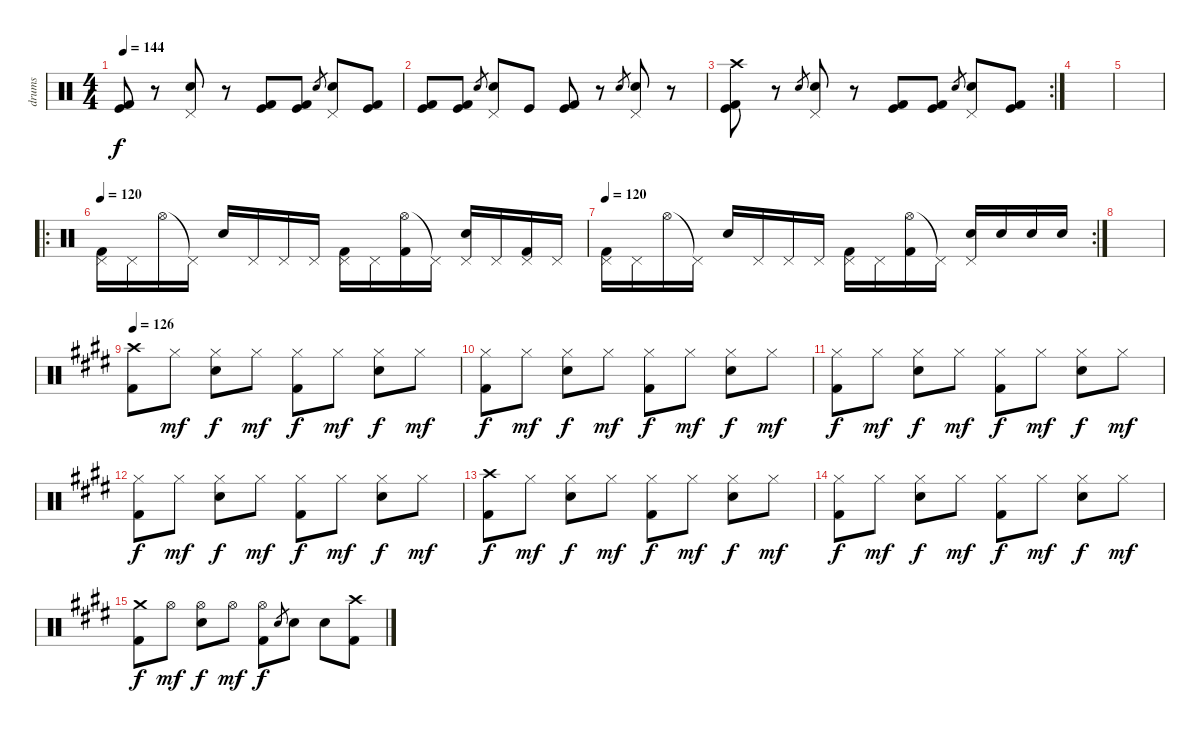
\track ("drums" "drums") {instrument percussion}
\staff {score}
\articulation defaults
\ts (4 4)
\tempo 144
\clef neutral
\ks c
("Kick (hit)" "Kick (hit) 2").8{dy f} r.8 ("Pedal Hi-Hat (hit)" "Snare (hit) 2").8 r.8 ("Kick (hit)" "Kick (hit) 2").8 ("Kick (hit)" "Kick (hit) 2").8 "Snare (hit) 2".8{gr} ("Pedal Hi-Hat (hit)" "Snare (hit) 2").8 ("Kick (hit)" "Kick (hit) 2").8 |
("Kick (hit)" "Kick (hit) 2").8 ("Kick (hit)" "Kick (hit) 2").8 "Snare (hit) 2".8{gr} ("Pedal Hi-Hat (hit)" "Snare (hit) 2").8 "Kick (hit)".8 ("Kick (hit)" "Kick (hit) 2").8 r.8 "Snare (hit) 2".8{gr} ("Pedal Hi-Hat (hit)" "Snare (hit) 2").8 r.8 |
\rc 2
("Crash high (hit)" "Kick (hit)" "Kick (hit) 2").8 r.8 "Snare (hit) 2".8{gr} ("Pedal Hi-Hat (hit)" "Snare (hit) 2").8 r.8 ("Kick (hit)" "Kick (hit) 2").8 ("Kick (hit)" "Kick (hit) 2").8 "Snare (hit) 2".8{gr} ("Pedal Hi-Hat (hit)" "Snare (hit) 2").8 ("Kick (hit)" "Kick (hit) 2").8 |
|
|
\ro
\tempo 120
("Pedal Hi-Hat (hit)" "Kick (hit) 2").16 "Pedal Hi-Hat (hit)".16 "Hi-Hat (open)".16 "Pedal Hi-Hat (hit)"{t}.16 "Electric Snare (hit)".16 "Pedal Hi-Hat (hit)".16 "Pedal Hi-Hat (hit)".16 "Pedal Hi-Hat (hit)".16 ("Pedal Hi-Hat (hit)" "Kick (hit) 2").16 "Pedal Hi-Hat (hit)".16 ("Hi-Hat (open)" "Kick (hit) 2").16 "Pedal Hi-Hat (hit)"{t}.16 ("Pedal Hi-Hat (hit)" "Electric Snare (hit)").16 "Pedal Hi-Hat (hit)".16 ("Pedal Hi-Hat (hit)" "Kick (hit) 2").16 "Pedal Hi-Hat (hit)".16 |
\rc 2
\tempo 120
("Pedal Hi-Hat (hit)" "Kick (hit) 2").16 "Pedal Hi-Hat (hit)".16 "Hi-Hat (open)".16 "Pedal Hi-Hat (hit)"{t}.16 "Electric Snare (hit)".16 "Pedal Hi-Hat (hit)".16 "Pedal Hi-Hat (hit)".16 "Pedal Hi-Hat (hit)".16 ("Pedal Hi-Hat (hit)" "Kick (hit) 2").16 "Pedal Hi-Hat (hit)".16 ("Hi-Hat (open)" "Kick (hit) 2").16 "Pedal Hi-Hat (hit)"{t}.16 ("Pedal Hi-Hat (hit)" "Electric Snare (hit)").16 "Electric Snare (hit)".16 "Electric Snare (hit)".16 "Electric Snare (hit)".16 |
|
\tempo 126
\ks e
("Crash high (hit)" "Kick (hit) 2").8 "Hi-Hat (closed)".8{dy mf} ("Hi-Hat (closed)" "Snare (hit) 2").8{dy f} "Hi-Hat (closed)".8{dy mf} ("Hi-Hat (closed)" "Kick (hit) 2").8{dy f} "Hi-Hat (closed)".8{dy mf} ("Hi-Hat (closed)" "Snare (hit) 2").8{dy f} "Hi-Hat (closed)".8{dy mf} |
("Hi-Hat (closed)" "Kick (hit) 2").8{dy f} "Hi-Hat (closed)".8{dy mf} ("Hi-Hat (closed)" "Snare (hit) 2").8{dy f} "Hi-Hat (closed)".8{dy mf} ("Hi-Hat (closed)" "Kick (hit) 2").8{dy f} "Hi-Hat (closed)".8{dy mf} ("Hi-Hat (closed)" "Snare (hit) 2").8{dy f} "Hi-Hat (closed)".8{dy mf} |
("Hi-Hat (closed)" "Kick (hit) 2").8{dy f} "Hi-Hat (closed)".8{dy mf} ("Hi-Hat (closed)" "Snare (hit) 2").8{dy f} "Hi-Hat (closed)".8{dy mf} ("Hi-Hat (closed)" "Kick (hit) 2").8{dy f} "Hi-Hat (closed)".8{dy mf} ("Hi-Hat (closed)" "Snare (hit) 2").8{dy f} "Hi-Hat (closed)".8{dy mf} |
("Hi-Hat (closed)" "Kick (hit) 2").8{dy f} "Hi-Hat (closed)".8{dy mf} ("Hi-Hat (closed)" "Snare (hit) 2").8{dy f} "Hi-Hat (closed)".8{dy mf} ("Hi-Hat (closed)" "Kick (hit) 2").8{dy f} "Hi-Hat (closed)".8{dy mf} ("Hi-Hat (closed)" "Snare (hit) 2").8{dy f} "Hi-Hat (closed)".8{dy mf} |
("Crash high (hit)" "Kick (hit) 2").8{dy f} "Hi-Hat (closed)".8{dy mf} ("Hi-Hat (closed)" "Snare (hit) 2").8{dy f} "Hi-Hat (closed)".8{dy mf} ("Hi-Hat (closed)" "Kick (hit) 2").8{dy f} "Hi-Hat (closed)".8{dy mf} ("Hi-Hat (closed)" "Snare (hit) 2").8{dy f} "Hi-Hat (closed)".8{dy mf} |
("Hi-Hat (closed)" "Kick (hit) 2").8{dy f} "Hi-Hat (closed)".8{dy mf} ("Hi-Hat (closed)" "Snare (hit) 2").8{dy f} "Hi-Hat (closed)".8{dy mf} ("Hi-Hat (closed)" "Kick (hit) 2").8{dy f} "Hi-Hat (closed)".8{dy mf} ("Hi-Hat (closed)" "Snare (hit) 2").8{dy f} "Hi-Hat (closed)".8{dy mf} |
("Crash medium (hit)" "Kick (hit) 2").8{dy f} "Hi-Hat (open)".8{dy mf} ("Hi-Hat (open)" "Snare (hit) 2").8{dy f} "Hi-Hat (open)".8{dy mf} ("Hi-Hat (open)" "Kick (hit) 2").8{dy f} "Snare (hit) 2".8{gr} "Snare (hit) 2".8 "Snare (hit) 2".8 ("Crash high (hit)" "Kick (hit) 2").8
